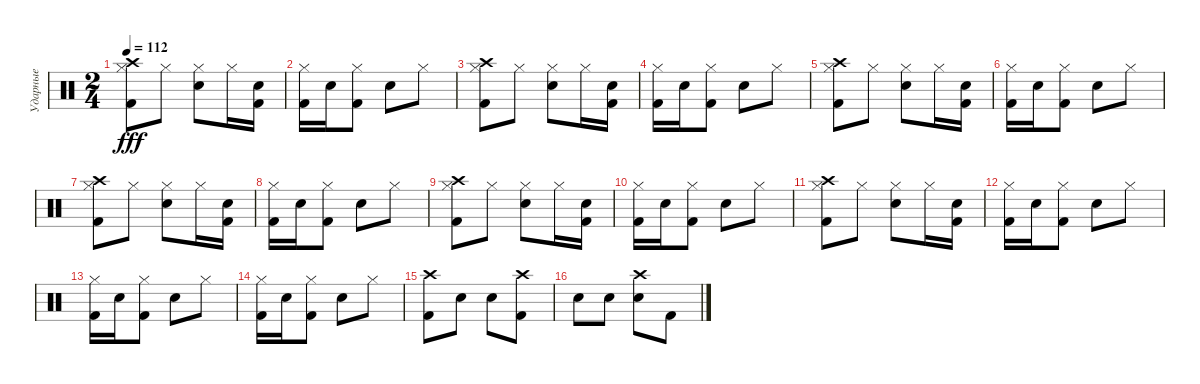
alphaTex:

\track ("Ударные" "Ударные") {instrument percussion}
\staff {score}
\articulation defaults
\ts (2 4)
\tempo 112
\clef neutral
\ks c
("Kick (hit) 2" "Crash high (hit)" "Hi-Hat (closed)").8{dy fff} "Hi-Hat (closed)".8 ("Electric Snare (hit)" "Hi-Hat (closed)").8 "Hi-Hat (closed)".16 ("Electric Snare (hit)" "Kick (hit) 2").16 |
("Kick (hit) 2" "Hi-Hat (closed)").16 "Electric Snare (hit)".16 ("Kick (hit) 2" "Hi-Hat (closed)").8 "Electric Snare (hit)".8 "Hi-Hat (closed)".8 |
("Kick (hit) 2" "Crash high (hit)" "Hi-Hat (closed)").8 "Hi-Hat (closed)".8 ("Electric Snare (hit)" "Hi-Hat (closed)").8 "Hi-Hat (closed)".16 ("Electric Snare (hit)" "Kick (hit) 2").16 |
("Kick (hit) 2" "Hi-Hat (closed)").16 "Electric Snare (hit)".16 ("Kick (hit) 2" "Hi-Hat (closed)").8 "Electric Snare (hit)".8 "Hi-Hat (closed)".8 |
("Kick (hit) 2" "Hi-Hat (closed)" "Crash high (hit)").8 "Hi-Hat (closed)".8 ("Electric Snare (hit)" "Hi-Hat (closed)").8 "Hi-Hat (closed)".16 ("Electric Snare (hit)" "Kick (hit) 2").16 |
("Kick (hit) 2" "Hi-Hat (closed)").16 "Electric Snare (hit)".16 ("Kick (hit) 2" "Hi-Hat (closed)").8 "Electric Snare (hit)".8 "Hi-Hat (closed)".8 |
("Kick (hit) 2" "Crash high (hit)" "Hi-Hat (closed)").8 "Hi-Hat (closed)".8 ("Electric Snare (hit)" "Hi-Hat (closed)").8 "Hi-Hat (closed)".16 ("Electric Snare (hit)" "Kick (hit) 2").16 |
("Kick (hit) 2" "Hi-Hat (closed)").16 "Electric Snare (hit)".16 ("Kick (hit) 2" "Hi-Hat (closed)").8 "Electric Snare (hit)".8 "Hi-Hat (closed)".8 |
("Kick (hit) 2" "Hi-Hat (closed)" "Crash high (hit)").8 "Hi-Hat (closed)".8 ("Electric Snare (hit)" "Hi-Hat (closed)").8 "Hi-Hat (closed)".16 ("Electric Snare (hit)" "Kick (hit) 2").16 |
("Kick (hit) 2" "Hi-Hat (closed)").16 "Electric Snare (hit)".16 ("Kick (hit) 2" "Hi-Hat (closed)").8 "Electric Snare (hit)".8 "Hi-Hat (closed)".8 |
("Kick (hit) 2" "Hi-Hat (closed)" "Crash high (hit)").8 "Hi-Hat (closed)".8 ("Electric Snare (hit)" "Hi-Hat (closed)").8 "Hi-Hat (closed)".16 ("Electric Snare (hit)" "Kick (hit) 2").16 |
("Kick (hit) 2" "Hi-Hat (closed)").16 "Electric Snare (hit)".16 ("Kick (hit) 2" "Hi-Hat (closed)").8 "Electric Snare (hit)".8 "Hi-Hat (closed)".8 |
("Kick (hit) 2" "Hi-Hat (closed)").16 "Electric Snare (hit)".16 ("Kick (hit) 2" "Hi-Hat (closed)").8 "Electric Snare (hit)".8 "Hi-Hat (closed)".8 |
("Kick (hit) 2" "Hi-Hat (closed)").16 "Electric Snare (hit)".16 ("Kick (hit) 2" "Hi-Hat (closed)").8 "Electric Snare (hit)".8 "Hi-Hat (closed)".8 |
("Kick (hit) 2" "Crash high (hit)").8 "Electric Snare (hit)".8 "Electric Snare (hit)".8 ("Kick (hit) 2" "Crash high (hit)").8 |
"Electric Snare (hit)".8 "Electric Snare (hit)".8 ("Electric Snare (hit)" "Crash high (hit)").8 "Kick (hit) 2".8
